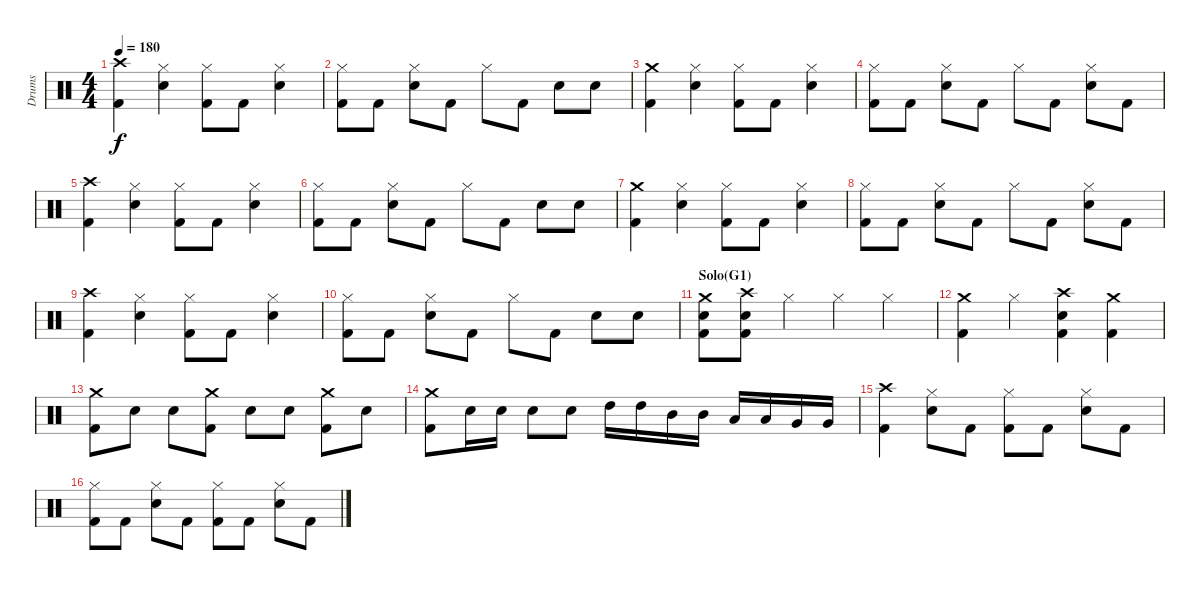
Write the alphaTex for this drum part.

\track ("Drums" "Drums") {instrument percussion}
\staff {score}
\articulation defaults
\ts (4 4)
\tempo 180
\clef neutral
\ks c
("Crash high (hit)" "Kick (hit) 2").4{dy f} ("Hi-Hat (closed)" "Electric Snare (hit)").4 ("Hi-Hat (closed)" "Kick (hit) 2").8 "Kick (hit) 2".8 ("Hi-Hat (closed)" "Electric Snare (hit)").4 |
("Hi-Hat (closed)" "Kick (hit) 2").8 "Kick (hit) 2".8 ("Hi-Hat (closed)" "Electric Snare (hit)").8 "Kick (hit) 2".8 "Hi-Hat (closed)".8 "Kick (hit) 2".8 "Electric Snare (hit)".8 "Electric Snare (hit)".8 |
("Crash medium (hit)" "Kick (hit) 2").4 ("Hi-Hat (closed)" "Electric Snare (hit)").4 ("Hi-Hat (closed)" "Kick (hit) 2").8 "Kick (hit) 2".8 ("Hi-Hat (closed)" "Electric Snare (hit)").4 |
("Hi-Hat (closed)" "Kick (hit) 2").8 "Kick (hit) 2".8 ("Hi-Hat (closed)" "Electric Snare (hit)").8 "Kick (hit) 2".8 "Hi-Hat (closed)".8 "Kick (hit) 2".8 ("Hi-Hat (closed)" "Electric Snare (hit)").8 "Kick (hit) 2".8 |
("Crash high (hit)" "Kick (hit) 2").4 ("Hi-Hat (closed)" "Electric Snare (hit)").4 ("Hi-Hat (closed)" "Kick (hit) 2").8 "Kick (hit) 2".8 ("Hi-Hat (closed)" "Electric Snare (hit)").4 |
("Hi-Hat (closed)" "Kick (hit) 2").8 "Kick (hit) 2".8 ("Hi-Hat (closed)" "Electric Snare (hit)").8 "Kick (hit) 2".8 "Hi-Hat (closed)".8 "Kick (hit) 2".8 "Electric Snare (hit)".8 "Electric Snare (hit)".8 |
("Crash medium (hit)" "Kick (hit) 2").4 ("Hi-Hat (closed)" "Electric Snare (hit)").4 ("Hi-Hat (closed)" "Kick (hit) 2").8 "Kick (hit) 2".8 ("Hi-Hat (closed)" "Electric Snare (hit)").4 |
("Hi-Hat (closed)" "Kick (hit) 2").8 "Kick (hit) 2".8 ("Hi-Hat (closed)" "Electric Snare (hit)").8 "Kick (hit) 2".8 "Hi-Hat (closed)".8 "Kick (hit) 2".8 ("Hi-Hat (closed)" "Electric Snare (hit)").8 "Kick (hit) 2".8 |
("Crash high (hit)" "Kick (hit) 2").4 ("Hi-Hat (closed)" "Electric Snare (hit)").4 ("Hi-Hat (closed)" "Kick (hit) 2").8 "Kick (hit) 2".8 ("Hi-Hat (closed)" "Electric Snare (hit)").4 |
("Hi-Hat (closed)" "Kick (hit) 2").8 "Kick (hit) 2".8 ("Hi-Hat (closed)" "Electric Snare (hit)").8 "Kick (hit) 2".8 "Hi-Hat (closed)".8 "Kick (hit) 2".8 "Electric Snare (hit)".8 "Electric Snare (hit)".8 |
\section ("" "Solo(G1)")
("Crash medium (hit)" "Electric Snare (hit)" "Kick (hit) 2").8 ("Crash high (hit)" "Electric Snare (hit)" "Kick (hit) 2").8 "Hi-Hat (closed)".4 "Hi-Hat (closed)".4 "Hi-Hat (closed)".4 |
("Crash medium (hit)" "Kick (hit) 2").4 "Hi-Hat (closed)".4 ("Crash high (hit)" "Electric Snare (hit)" "Kick (hit) 2").4 ("Crash medium (hit)" "Kick (hit) 2").4 |
("Crash medium (hit)" "Kick (hit) 2").8 "Electric Snare (hit)".8 "Electric Snare (hit)".8 ("Crash medium (hit)" "Kick (hit) 2").8 "Electric Snare (hit)".8 "Electric Snare (hit)".8 ("Crash medium (hit)" "Kick (hit) 2").8 "Electric Snare (hit)".8 |
("Crash medium (hit)" "Kick (hit) 2").8 "Electric Snare (hit)".16 "Electric Snare (hit)".16 "Electric Snare (hit)".8 "Electric Snare (hit)".8 "High Tom (hit)".16 "High Tom (hit)".16 "Mid Tom (hit)".16 "Mid Tom (hit)".16 "Low Tom (hit)".16 "Low Tom (hit)".16 "Very Low Tom (hit)".16 "Very Low Tom (hit)".16 |
("Crash high (hit)" "Kick (hit) 2").4 ("Hi-Hat (closed)" "Electric Snare (hit)").8 "Kick (hit) 2".8 ("Hi-Hat (closed)" "Kick (hit) 2").8 "Kick (hit) 2".8 ("Hi-Hat (closed)" "Electric Snare (hit)").8 "Kick (hit) 2".8 |
("Hi-Hat (closed)" "Kick (hit) 2").8 "Kick (hit) 2".8 ("Hi-Hat (closed)" "Electric Snare (hit)").8 "Kick (hit) 2".8 ("Hi-Hat (closed)" "Kick (hit) 2").8 "Kick (hit) 2".8 ("Hi-Hat (closed)" "Electric Snare (hit)").8 "Kick (hit) 2".8
